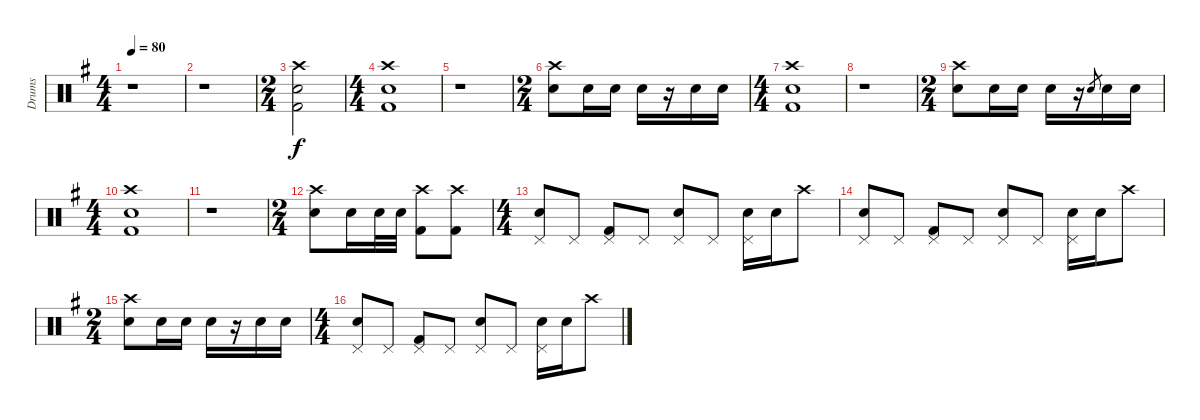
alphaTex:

\track ("Drums" "Drums") {instrument percussion}
\staff {score}
\articulation defaults
\ts (4 4)
\tempo 80
\clef neutral
\ks eminor
r.1{dy f} |
r.1 |
\ts (2 4)
("Crash high (hit)" "Snare (hit) 2" "Kick (hit) 2").2 |
\ts (4 4)
("Crash high (hit)" "Snare (hit) 2" "Kick (hit) 2").1 |
r.1 |
\ts (2 4)
("Snare (hit) 2" "Crash high (hit)").8 "Snare (hit) 2".16 "Snare (hit) 2".16 "Snare (hit) 2".16 r.16 "Snare (hit) 2".16 "Snare (hit) 2".16 |
\ts (4 4)
("Crash high (hit)" "Snare (hit) 2" "Kick (hit) 2").1 |
r.1 |
\ts (2 4)
("Snare (hit) 2" "Crash high (hit)").8 "Snare (hit) 2".16 "Snare (hit) 2".16 "Snare (hit) 2".16 r.16 "Snare (hit) 2".8{gr} "Snare (hit) 2".16 "Snare (hit) 2".16 |
\ts (4 4)
("Crash high (hit)" "Snare (hit) 2" "Kick (hit) 2").1 |
r.1 |
\ts (2 4)
("Snare (hit) 2" "Crash high (hit)").8 "Snare (hit) 2".16 "Snare (hit) 2".32 "Snare (hit) 2".32 ("Kick (hit) 2" "Crash high (hit)").8 ("Kick (hit) 2" "Crash high (hit)").8 |
\ts (4 4)
("Pedal Hi-Hat (hit)" "Snare (hit) 2").8 "Pedal Hi-Hat (hit)".8 ("Pedal Hi-Hat (hit)" "Kick (hit) 2").8 "Pedal Hi-Hat (hit)".8 ("Pedal Hi-Hat (hit)" "Snare (hit) 2").8 "Pedal Hi-Hat (hit)".8 ("Pedal Hi-Hat (hit)" "Snare (hit) 2").16 "Snare (hit) 2".16 "Crash high (hit)".8 |
("Pedal Hi-Hat (hit)" "Snare (hit) 2").8 "Pedal Hi-Hat (hit)".8 ("Pedal Hi-Hat (hit)" "Kick (hit) 2").8 "Pedal Hi-Hat (hit)".8 ("Pedal Hi-Hat (hit)" "Snare (hit) 2").8 "Pedal Hi-Hat (hit)".8 ("Pedal Hi-Hat (hit)" "Snare (hit) 2").16 "Snare (hit) 2".16 "Crash high (hit)".8 |
\ts (2 4)
("Snare (hit) 2" "Crash high (hit)").8 "Snare (hit) 2".16 "Snare (hit) 2".16 "Snare (hit) 2".16 r.16 "Snare (hit) 2".16 "Snare (hit) 2".16 |
\ts (4 4)
("Pedal Hi-Hat (hit)" "Snare (hit) 2").8 "Pedal Hi-Hat (hit)".8 ("Pedal Hi-Hat (hit)" "Kick (hit) 2").8 "Pedal Hi-Hat (hit)".8 ("Pedal Hi-Hat (hit)" "Snare (hit) 2").8 "Pedal Hi-Hat (hit)".8 ("Pedal Hi-Hat (hit)" "Snare (hit) 2").16 "Snare (hit) 2".16 "Crash high (hit)".8
